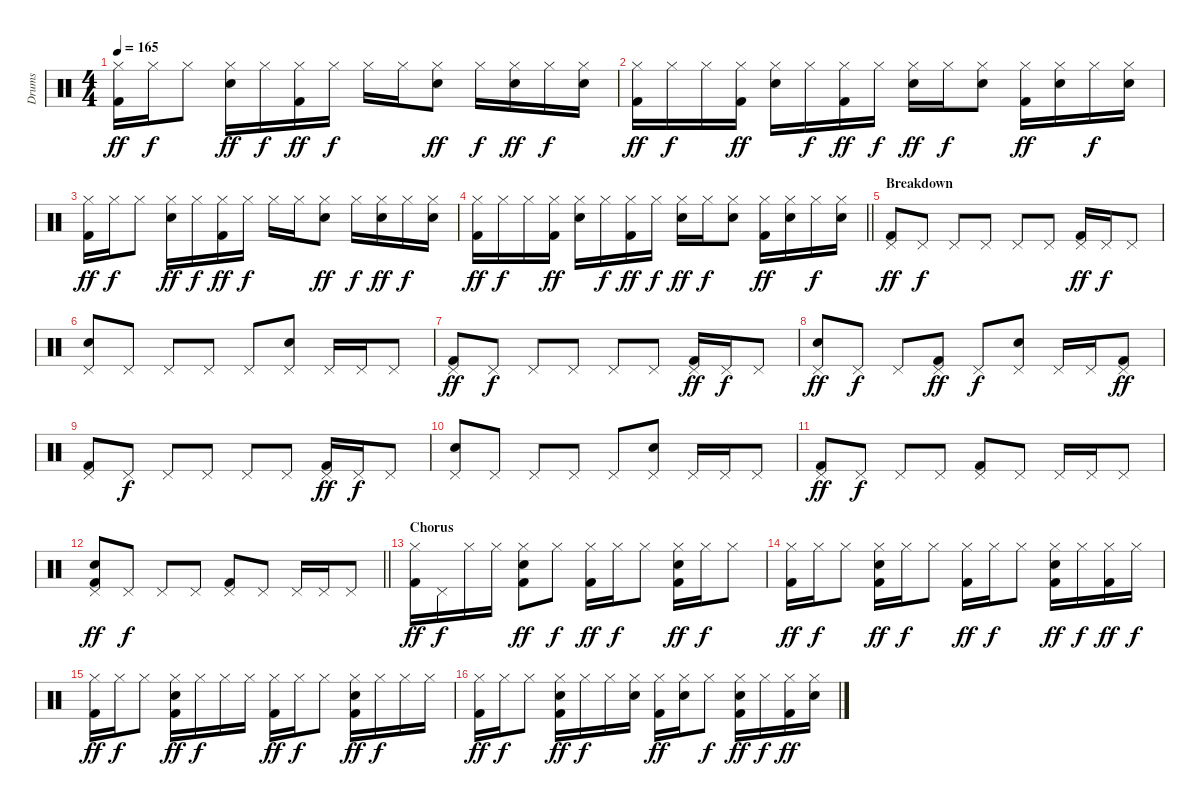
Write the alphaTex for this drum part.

\track ("Drums" "Drums") {instrument percussion}
\staff {score}
\articulation defaults
\ts (4 4)
\tempo 165
\clef neutral
\ks c
("Kick (hit) 2" "Hi-Hat (closed)").16{dy ff} "Hi-Hat (closed)".16{dy f} "Hi-Hat (closed)".8 ("Snare (hit) 2" "Hi-Hat (closed)").16{dy ff} "Hi-Hat (closed)".16{dy f} ("Kick (hit) 2" "Hi-Hat (closed)").16{dy ff} "Hi-Hat (closed)".16{dy f} "Hi-Hat (closed)".16 "Hi-Hat (closed)".16 ("Snare (hit) 2" "Hi-Hat (closed)").8{dy ff} "Hi-Hat (closed)".16{dy f} ("Snare (hit) 2" "Hi-Hat (closed)").16{dy ff} "Hi-Hat (closed)".16{dy f} ("Snare (hit) 2" "Hi-Hat (closed)").16 |
("Kick (hit) 2" "Hi-Hat (closed)").16{dy ff} "Hi-Hat (closed)".16{dy f} "Hi-Hat (closed)".16 ("Kick (hit) 2" "Hi-Hat (closed)").16{dy ff} ("Snare (hit) 2" "Hi-Hat (closed)").16 "Hi-Hat (closed)".16{dy f} ("Kick (hit) 2" "Hi-Hat (closed)").16{dy ff} "Hi-Hat (closed)".16{dy f} ("Snare (hit) 2" "Hi-Hat (closed)").16{dy ff} "Hi-Hat (closed)".16{dy f} ("Snare (hit) 2" "Hi-Hat (closed)").8 ("Kick (hit) 2" "Hi-Hat (closed)").16{dy ff} ("Snare (hit) 2" "Hi-Hat (closed)").16 "Hi-Hat (closed)".16{dy f} ("Snare (hit) 2" "Hi-Hat (closed)").16 |
("Kick (hit) 2" "Hi-Hat (closed)").16{dy ff} "Hi-Hat (closed)".16{dy f} "Hi-Hat (closed)".8 ("Snare (hit) 2" "Hi-Hat (closed)").16{dy ff} "Hi-Hat (closed)".16{dy f} ("Kick (hit) 2" "Hi-Hat (closed)").16{dy ff} "Hi-Hat (closed)".16{dy f} "Hi-Hat (closed)".16 "Hi-Hat (closed)".16 ("Snare (hit) 2" "Hi-Hat (closed)").8{dy ff} "Hi-Hat (closed)".16{dy f} ("Snare (hit) 2" "Hi-Hat (closed)").16{dy ff} "Hi-Hat (closed)".16{dy f} ("Snare (hit) 2" "Hi-Hat (closed)").16 |
\barLineRight lightlight
("Kick (hit) 2" "Hi-Hat (closed)").16{dy ff} "Hi-Hat (closed)".16{dy f} "Hi-Hat (closed)".16 ("Kick (hit) 2" "Hi-Hat (closed)").16{dy ff} ("Snare (hit) 2" "Hi-Hat (closed)").16 "Hi-Hat (closed)".16{dy f} ("Kick (hit) 2" "Hi-Hat (closed)").16{dy ff} "Hi-Hat (closed)".16{dy f} ("Snare (hit) 2" "Hi-Hat (closed)").16{dy ff} "Hi-Hat (closed)".16{dy f} ("Snare (hit) 2" "Hi-Hat (closed)").8 ("Kick (hit) 2" "Hi-Hat (closed)").16{dy ff} ("Snare (hit) 2" "Hi-Hat (closed)").16 "Hi-Hat (closed)".16{dy f} ("Snare (hit) 2" "Hi-Hat (closed)").16 |
\section ("" "Breakdown")
("Kick (hit) 2" "Pedal Hi-Hat (hit)").8{dy ff} "Pedal Hi-Hat (hit)".8{dy f} "Pedal Hi-Hat (hit)".8 "Pedal Hi-Hat (hit)".8 "Pedal Hi-Hat (hit)".8 "Pedal Hi-Hat (hit)".8 ("Kick (hit) 2" "Pedal Hi-Hat (hit)").16{dy ff} "Pedal Hi-Hat (hit)".16{dy f} "Pedal Hi-Hat (hit)".8 |
("Snare (hit) 2" "Pedal Hi-Hat (hit)").8 "Pedal Hi-Hat (hit)".8 "Pedal Hi-Hat (hit)".8 "Pedal Hi-Hat (hit)".8 "Pedal Hi-Hat (hit)".8 ("Snare (hit) 2" "Pedal Hi-Hat (hit)").8 "Pedal Hi-Hat (hit)".16 "Pedal Hi-Hat (hit)".16 "Pedal Hi-Hat (hit)".8 |
("Kick (hit) 2" "Pedal Hi-Hat (hit)").8{dy ff} "Pedal Hi-Hat (hit)".8{dy f} "Pedal Hi-Hat (hit)".8 "Pedal Hi-Hat (hit)".8 "Pedal Hi-Hat (hit)".8 "Pedal Hi-Hat (hit)".8 ("Kick (hit) 2" "Pedal Hi-Hat (hit)").16{dy ff} "Pedal Hi-Hat (hit)".16{dy f} "Pedal Hi-Hat (hit)".8 |
("Snare (hit) 2" "Pedal Hi-Hat (hit)").8{dy ff} "Pedal Hi-Hat (hit)".8{dy f} "Pedal Hi-Hat (hit)".8 ("Kick (hit) 2" "Pedal Hi-Hat (hit)").8{dy ff} "Pedal Hi-Hat (hit)".8{dy f} ("Snare (hit) 2" "Pedal Hi-Hat (hit)").8 "Pedal Hi-Hat (hit)".16 "Pedal Hi-Hat (hit)".16 ("Kick (hit) 2" "Pedal Hi-Hat (hit)").8{dy ff} |
("Kick (hit) 2" "Pedal Hi-Hat (hit)").8 "Pedal Hi-Hat (hit)".8{dy f} "Pedal Hi-Hat (hit)".8 "Pedal Hi-Hat (hit)".8 "Pedal Hi-Hat (hit)".8 "Pedal Hi-Hat (hit)".8 ("Kick (hit) 2" "Pedal Hi-Hat (hit)").16{dy ff} "Pedal Hi-Hat (hit)".16{dy f} "Pedal Hi-Hat (hit)".8 |
("Snare (hit) 2" "Pedal Hi-Hat (hit)").8 "Pedal Hi-Hat (hit)".8 "Pedal Hi-Hat (hit)".8 "Pedal Hi-Hat (hit)".8 "Pedal Hi-Hat (hit)".8 ("Snare (hit) 2" "Pedal Hi-Hat (hit)").8 "Pedal Hi-Hat (hit)".16 "Pedal Hi-Hat (hit)".16 "Pedal Hi-Hat (hit)".8 |
("Kick (hit) 2" "Pedal Hi-Hat (hit)").8{dy ff} "Pedal Hi-Hat (hit)".8{dy f} "Pedal Hi-Hat (hit)".8 "Pedal Hi-Hat (hit)".8 ("Kick (hit) 2" "Pedal Hi-Hat (hit)").8 "Pedal Hi-Hat (hit)".8 "Pedal Hi-Hat (hit)".16 "Pedal Hi-Hat (hit)".16 "Pedal Hi-Hat (hit)".8 |
\barLineRight lightlight
("Kick (hit) 2" "Snare (hit) 2" "Pedal Hi-Hat (hit)").8{dy ff} "Pedal Hi-Hat (hit)".8{dy f} "Pedal Hi-Hat (hit)".8 "Pedal Hi-Hat (hit)".8 ("Kick (hit) 2" "Pedal Hi-Hat (hit)").8 "Pedal Hi-Hat (hit)".8 "Pedal Hi-Hat (hit)".16 "Pedal Hi-Hat (hit)".16 "Pedal Hi-Hat (hit)".8 |
\section ("" "Chorus")
("Kick (hit) 2" "Hi-Hat (closed)").16{dy ff} "Pedal Hi-Hat (hit)".16{dy f} "Hi-Hat (closed)".16 "Hi-Hat (closed)".16 ("Kick (hit) 2" "Snare (hit) 2" "Hi-Hat (closed)").8{dy ff} "Hi-Hat (closed)".8{dy f} ("Kick (hit) 2" "Hi-Hat (closed)").16{dy ff} "Hi-Hat (closed)".16{dy f} "Hi-Hat (closed)".8 ("Kick (hit) 2" "Snare (hit) 2" "Hi-Hat (closed)").16{dy ff} "Hi-Hat (closed)".16{dy f} "Hi-Hat (closed)".8 |
("Kick (hit) 2" "Hi-Hat (closed)").16{dy ff} "Hi-Hat (closed)".16{dy f} "Hi-Hat (closed)".8 ("Kick (hit) 2" "Snare (hit) 2" "Hi-Hat (closed)").16{dy ff} "Hi-Hat (closed)".16{dy f} "Hi-Hat (closed)".8 ("Kick (hit) 2" "Hi-Hat (closed)").16{dy ff} "Hi-Hat (closed)".16{dy f} "Hi-Hat (closed)".8 ("Kick (hit) 2" "Snare (hit) 2" "Hi-Hat (closed)").16{dy ff} "Hi-Hat (closed)".16{dy f} ("Kick (hit) 2" "Hi-Hat (closed)").16{dy ff} "Hi-Hat (closed)".16{dy f} |
("Kick (hit) 2" "Hi-Hat (closed)").16{dy ff} "Hi-Hat (closed)".16{dy f} "Hi-Hat (closed)".8 ("Kick (hit) 2" "Snare (hit) 2" "Hi-Hat (closed)").16{dy ff} "Hi-Hat (closed)".16{dy f} "Hi-Hat (closed)".16 "Hi-Hat (closed)".16 ("Kick (hit) 2" "Hi-Hat (closed)").16{dy ff} "Hi-Hat (closed)".16{dy f} "Hi-Hat (closed)".8 ("Kick (hit) 2" "Snare (hit) 2" "Hi-Hat (closed)").16{dy ff} "Hi-Hat (closed)".16{dy f} "Hi-Hat (closed)".16 "Hi-Hat (closed)".16 |
("Kick (hit) 2" "Hi-Hat (closed)").16{dy ff} "Hi-Hat (closed)".16{dy f} "Hi-Hat (closed)".8 ("Kick (hit) 2" "Snare (hit) 2" "Hi-Hat (closed)").16{dy ff} "Hi-Hat (closed)".16{dy f} "Hi-Hat (closed)".16 ("Snare (hit) 2" "Hi-Hat (closed)").16 ("Kick (hit) 2" "Hi-Hat (closed)").16{dy ff} ("Snare (hit) 2" "Hi-Hat (closed)").16 "Hi-Hat (closed)".8{dy f} ("Kick (hit) 2" "Snare (hit) 2" "Hi-Hat (closed)").16{dy ff} "Hi-Hat (closed)".16{dy f} ("Kick (hit) 2" "Hi-Hat (closed)").16{dy ff} ("Snare (hit) 2" "Hi-Hat (closed)").16
